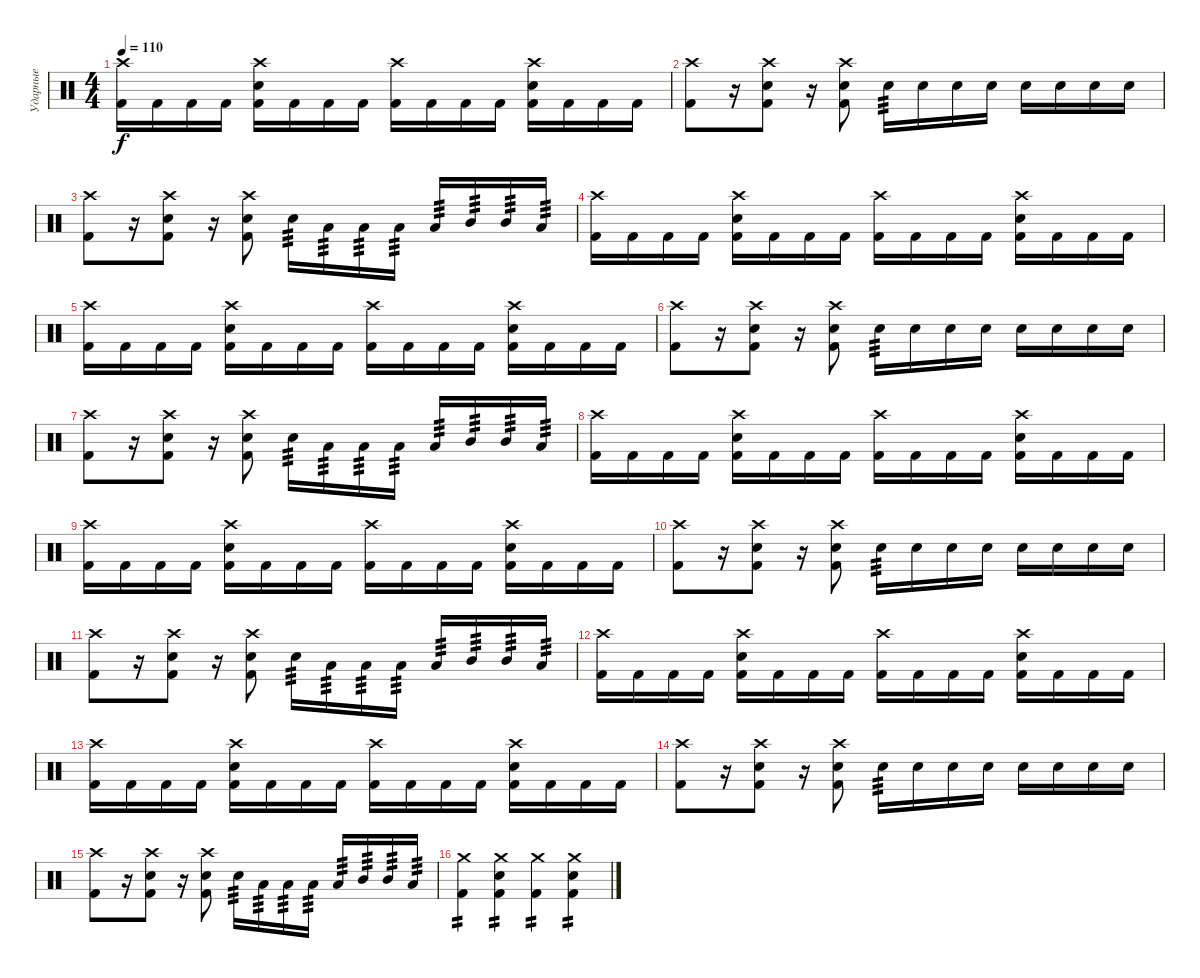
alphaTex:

\track ("Ударные" "Ударные") {instrument percussion}
\staff {score}
\articulation defaults
\ts (4 4)
\tempo 110
\clef neutral
\ks c
("Crash high (hit)" "Kick (hit) 2").16{dy f} "Kick (hit) 2".16 "Kick (hit) 2".16 "Kick (hit) 2".16 ("Crash high (hit)" "Snare (hit) 2" "Kick (hit) 2").16 "Kick (hit) 2".16 "Kick (hit) 2".16 "Kick (hit) 2".16 ("Crash high (hit)" "Kick (hit) 2").16 "Kick (hit) 2".16 "Kick (hit) 2".16 "Kick (hit) 2".16 ("Crash high (hit)" "Snare (hit) 2" "Kick (hit) 2").16 "Kick (hit) 2".16 "Kick (hit) 2".16 "Kick (hit) 2".16 |
("Crash high (hit)" "Kick (hit) 2").8 r.16 ("Crash high (hit)" "Snare (hit) 2" "Kick (hit) 2").8 r.16 ("Crash high (hit)" "Snare (hit) 2" "Kick (hit) 2").8 "Snare (hit) 2".16{tp 3} "Snare (hit) 2".16 "Snare (hit) 2".16 "Snare (hit) 2".16 "Snare (hit) 2".16 "Snare (hit) 2".16 "Snare (hit) 2".16 "Snare (hit) 2".16 |
("Crash high (hit)" "Kick (hit) 2").8 r.16 ("Crash high (hit)" "Snare (hit) 2" "Kick (hit) 2").8 r.16 ("Crash high (hit)" "Snare (hit) 2" "Kick (hit) 2").8 "Snare (hit) 2".16{tp 3} "Low Tom (hit)".16{tp 3} "Low Tom (hit)".16{tp 3} "Low Floor Tom (hit)".16{tp 3} "Low Floor Tom (hit)".16{tp 3} "Mid Tom (hit)".16{tp 3} "Mid Tom (hit)".16{tp 3} "Low Floor Tom (hit)".16{tp 3} |
("Crash high (hit)" "Kick (hit) 2").16 "Kick (hit) 2".16 "Kick (hit) 2".16 "Kick (hit) 2".16 ("Crash high (hit)" "Snare (hit) 2" "Kick (hit) 2").16 "Kick (hit) 2".16 "Kick (hit) 2".16 "Kick (hit) 2".16 ("Crash high (hit)" "Kick (hit) 2").16 "Kick (hit) 2".16 "Kick (hit) 2".16 "Kick (hit) 2".16 ("Crash high (hit)" "Snare (hit) 2" "Kick (hit) 2").16 "Kick (hit) 2".16 "Kick (hit) 2".16 "Kick (hit) 2".16 |
("Crash high (hit)" "Kick (hit) 2").16 "Kick (hit) 2".16 "Kick (hit) 2".16 "Kick (hit) 2".16 ("Crash high (hit)" "Snare (hit) 2" "Kick (hit) 2").16 "Kick (hit) 2".16 "Kick (hit) 2".16 "Kick (hit) 2".16 ("Crash high (hit)" "Kick (hit) 2").16 "Kick (hit) 2".16 "Kick (hit) 2".16 "Kick (hit) 2".16 ("Crash high (hit)" "Snare (hit) 2" "Kick (hit) 2").16 "Kick (hit) 2".16 "Kick (hit) 2".16 "Kick (hit) 2".16 |
("Crash high (hit)" "Kick (hit) 2").8 r.16 ("Crash high (hit)" "Snare (hit) 2" "Kick (hit) 2").8 r.16 ("Crash high (hit)" "Snare (hit) 2" "Kick (hit) 2").8 "Snare (hit) 2".16{tp 3} "Snare (hit) 2".16 "Snare (hit) 2".16 "Snare (hit) 2".16 "Snare (hit) 2".16 "Snare (hit) 2".16 "Snare (hit) 2".16 "Snare (hit) 2".16 |
("Crash high (hit)" "Kick (hit) 2").8 r.16 ("Crash high (hit)" "Snare (hit) 2" "Kick (hit) 2").8 r.16 ("Crash high (hit)" "Snare (hit) 2" "Kick (hit) 2").8 "Snare (hit) 2".16{tp 3} "Low Tom (hit)".16{tp 3} "Low Tom (hit)".16{tp 3} "Low Floor Tom (hit)".16{tp 3} "Low Floor Tom (hit)".16{tp 3} "Mid Tom (hit)".16{tp 3} "Mid Tom (hit)".16{tp 3} "Low Floor Tom (hit)".16{tp 3} |
("Crash high (hit)" "Kick (hit) 2").16 "Kick (hit) 2".16 "Kick (hit) 2".16 "Kick (hit) 2".16 ("Crash high (hit)" "Snare (hit) 2" "Kick (hit) 2").16 "Kick (hit) 2".16 "Kick (hit) 2".16 "Kick (hit) 2".16 ("Crash high (hit)" "Kick (hit) 2").16 "Kick (hit) 2".16 "Kick (hit) 2".16 "Kick (hit) 2".16 ("Crash high (hit)" "Snare (hit) 2" "Kick (hit) 2").16 "Kick (hit) 2".16 "Kick (hit) 2".16 "Kick (hit) 2".16 |
("Crash high (hit)" "Kick (hit) 2").16 "Kick (hit) 2".16 "Kick (hit) 2".16 "Kick (hit) 2".16 ("Crash high (hit)" "Snare (hit) 2" "Kick (hit) 2").16 "Kick (hit) 2".16 "Kick (hit) 2".16 "Kick (hit) 2".16 ("Crash high (hit)" "Kick (hit) 2").16 "Kick (hit) 2".16 "Kick (hit) 2".16 "Kick (hit) 2".16 ("Crash high (hit)" "Snare (hit) 2" "Kick (hit) 2").16 "Kick (hit) 2".16 "Kick (hit) 2".16 "Kick (hit) 2".16 |
("Crash high (hit)" "Kick (hit) 2").8 r.16 ("Crash high (hit)" "Snare (hit) 2" "Kick (hit) 2").8 r.16 ("Crash high (hit)" "Snare (hit) 2" "Kick (hit) 2").8 "Snare (hit) 2".16{tp 3} "Snare (hit) 2".16 "Snare (hit) 2".16 "Snare (hit) 2".16 "Snare (hit) 2".16 "Snare (hit) 2".16 "Snare (hit) 2".16 "Snare (hit) 2".16 |
("Crash high (hit)" "Kick (hit) 2").8 r.16 ("Crash high (hit)" "Snare (hit) 2" "Kick (hit) 2").8 r.16 ("Crash high (hit)" "Snare (hit) 2" "Kick (hit) 2").8 "Snare (hit) 2".16{tp 3} "Low Tom (hit)".16{tp 3} "Low Tom (hit)".16{tp 3} "Low Floor Tom (hit)".16{tp 3} "Low Floor Tom (hit)".16{tp 3} "Mid Tom (hit)".16{tp 3} "Mid Tom (hit)".16{tp 3} "Low Floor Tom (hit)".16{tp 3} |
("Crash high (hit)" "Kick (hit) 2").16 "Kick (hit) 2".16 "Kick (hit) 2".16 "Kick (hit) 2".16 ("Crash high (hit)" "Snare (hit) 2" "Kick (hit) 2").16 "Kick (hit) 2".16 "Kick (hit) 2".16 "Kick (hit) 2".16 ("Crash high (hit)" "Kick (hit) 2").16 "Kick (hit) 2".16 "Kick (hit) 2".16 "Kick (hit) 2".16 ("Crash high (hit)" "Snare (hit) 2" "Kick (hit) 2").16 "Kick (hit) 2".16 "Kick (hit) 2".16 "Kick (hit) 2".16 |
("Crash high (hit)" "Kick (hit) 2").16 "Kick (hit) 2".16 "Kick (hit) 2".16 "Kick (hit) 2".16 ("Crash high (hit)" "Snare (hit) 2" "Kick (hit) 2").16 "Kick (hit) 2".16 "Kick (hit) 2".16 "Kick (hit) 2".16 ("Crash high (hit)" "Kick (hit) 2").16 "Kick (hit) 2".16 "Kick (hit) 2".16 "Kick (hit) 2".16 ("Crash high (hit)" "Snare (hit) 2" "Kick (hit) 2").16 "Kick (hit) 2".16 "Kick (hit) 2".16 "Kick (hit) 2".16 |
("Crash high (hit)" "Kick (hit) 2").8 r.16 ("Crash high (hit)" "Snare (hit) 2" "Kick (hit) 2").8 r.16 ("Crash high (hit)" "Snare (hit) 2" "Kick (hit) 2").8 "Snare (hit) 2".16{tp 3} "Snare (hit) 2".16 "Snare (hit) 2".16 "Snare (hit) 2".16 "Snare (hit) 2".16 "Snare (hit) 2".16 "Snare (hit) 2".16 "Snare (hit) 2".16 |
("Crash high (hit)" "Kick (hit) 2").8 r.16 ("Crash high (hit)" "Snare (hit) 2" "Kick (hit) 2").8 r.16 ("Crash high (hit)" "Snare (hit) 2" "Kick (hit) 2").8 "Snare (hit) 2".16{tp 3} "Low Tom (hit)".16{tp 3} "Low Tom (hit)".16{tp 3} "Low Floor Tom (hit)".16{tp 3} "Low Floor Tom (hit)".16{tp 3} "Mid Tom (hit)".16{tp 3} "Mid Tom (hit)".16{tp 3} "Low Floor Tom (hit)".16{tp 3} |
("Crash medium (hit)" "Kick (hit) 2").4{tp 2} ("Crash medium (hit)" "Snare (hit) 2" "Kick (hit) 2").4{tp 2} ("Crash medium (hit)" "Kick (hit) 2").4{tp 2} ("Crash medium (hit)" "Snare (hit) 2" "Kick (hit) 2").4{tp 2}
